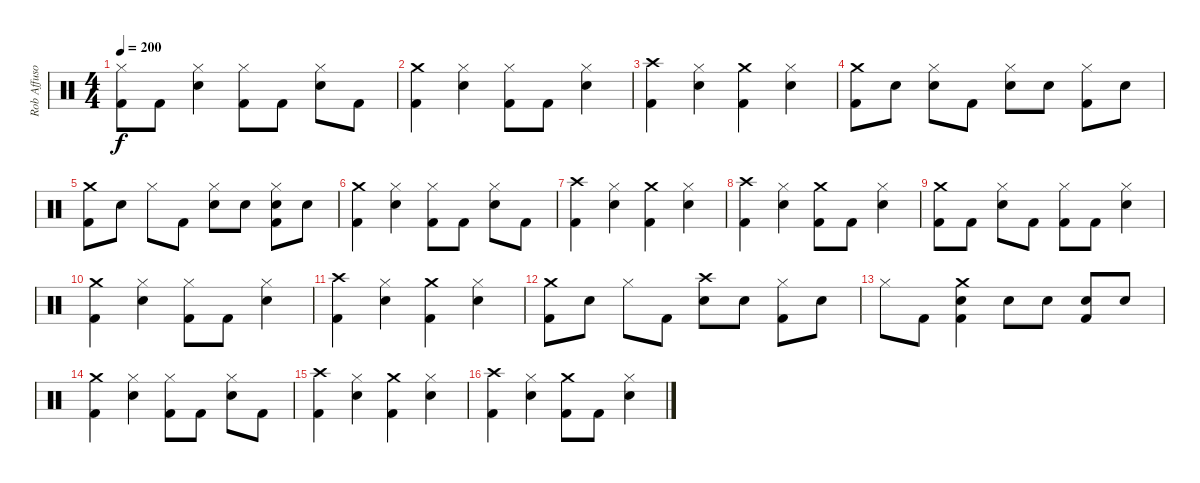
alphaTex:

\track ("Rob Affuso - Drums" "Rob Affuso") {instrument percussion}
\staff {score}
\articulation defaults
\ts (4 4)
\tempo 200
\clef neutral
\ks c
("Hi-Hat (closed)" "Kick (hit) 2").8{dy f} "Kick (hit) 2".8 ("Hi-Hat (closed)" "Snare (hit) 2").4 ("Hi-Hat (closed)" "Kick (hit) 2").8 "Kick (hit) 2".8 ("Hi-Hat (closed)" "Snare (hit) 2").8 "Kick (hit) 2".8 |
("Crash medium (hit)" "Kick (hit) 2").4 ("Hi-Hat (closed)" "Snare (hit) 2").4 ("Hi-Hat (closed)" "Kick (hit) 2").8 "Kick (hit) 2".8 ("Hi-Hat (closed)" "Snare (hit) 2").4 |
("Crash high (hit)" "Kick (hit) 2").4 ("Hi-Hat (closed)" "Snare (hit) 2").4 ("Crash medium (hit)" "Kick (hit) 2").4 ("Hi-Hat (closed)" "Snare (hit) 2").4 |
("Crash medium (hit)" "Kick (hit) 2").8 "Snare (hit) 2".8 ("Hi-Hat (closed)" "Snare (hit) 2").8 "Kick (hit) 2".8 ("Hi-Hat (closed)" "Snare (hit) 2").8 "Snare (hit) 2".8 ("Hi-Hat (closed)" "Kick (hit) 2").8 "Snare (hit) 2".8 |
("Crash medium (hit)" "Kick (hit) 2").8 "Snare (hit) 2".8 "Hi-Hat (closed)".8 "Kick (hit) 2".8 ("Hi-Hat (closed)" "Snare (hit) 2").8 "Snare (hit) 2".8 ("Hi-Hat (closed)" "Snare (hit) 2" "Kick (hit) 2").8 "Snare (hit) 2".8 |
("Crash medium (hit)" "Kick (hit) 2").4 ("Hi-Hat (closed)" "Snare (hit) 2").4 ("Hi-Hat (closed)" "Kick (hit) 2").8 "Kick (hit) 2".8 ("Hi-Hat (closed)" "Snare (hit) 2").8 "Kick (hit) 2".8 |
("Crash high (hit)" "Kick (hit) 2").4 ("Hi-Hat (closed)" "Snare (hit) 2").4 ("Crash medium (hit)" "Kick (hit) 2").4 ("Hi-Hat (closed)" "Snare (hit) 2").4 |
("Crash high (hit)" "Kick (hit) 2").4 ("Hi-Hat (closed)" "Snare (hit) 2").4 ("Crash medium (hit)" "Kick (hit) 2").8 "Kick (hit) 2".8 ("Hi-Hat (closed)" "Snare (hit) 2").4 |
("Crash medium (hit)" "Kick (hit) 2").8 "Kick (hit) 2".8 ("Hi-Hat (closed)" "Snare (hit) 2").8 "Kick (hit) 2".8 ("Hi-Hat (closed)" "Kick (hit) 2").8 "Kick (hit) 2".8 ("Hi-Hat (closed)" "Snare (hit) 2").4 |
("Crash medium (hit)" "Kick (hit) 2").4 ("Hi-Hat (closed)" "Snare (hit) 2").4 ("Hi-Hat (closed)" "Kick (hit) 2").8 "Kick (hit) 2".8 ("Hi-Hat (closed)" "Snare (hit) 2").4 |
("Crash high (hit)" "Kick (hit) 2").4 ("Hi-Hat (closed)" "Snare (hit) 2").4 ("Crash medium (hit)" "Kick (hit) 2").4 ("Hi-Hat (closed)" "Snare (hit) 2").4 |
("Crash medium (hit)" "Kick (hit) 2").8 "Snare (hit) 2".8 "Hi-Hat (closed)".8 "Kick (hit) 2".8 ("Crash high (hit)" "Snare (hit) 2").8 "Snare (hit) 2".8 ("Hi-Hat (closed)" "Kick (hit) 2").8 "Snare (hit) 2".8 |
"Hi-Hat (closed)".8 "Kick (hit) 2".8 ("Crash medium (hit)" "Snare (hit) 2" "Kick (hit) 2").4 "Snare (hit) 2".8 "Snare (hit) 2".8 ("Snare (hit) 2" "Kick (hit) 2").8 "Snare (hit) 2".8 |
("Crash medium (hit)" "Kick (hit) 2").4 ("Hi-Hat (closed)" "Snare (hit) 2").4 ("Hi-Hat (closed)" "Kick (hit) 2").8 "Kick (hit) 2".8 ("Hi-Hat (closed)" "Snare (hit) 2").8 "Kick (hit) 2".8 |
("Crash high (hit)" "Kick (hit) 2").4 ("Hi-Hat (closed)" "Snare (hit) 2").4 ("Crash medium (hit)" "Kick (hit) 2").4 ("Hi-Hat (closed)" "Snare (hit) 2").4 |
("Crash high (hit)" "Kick (hit) 2").4 ("Hi-Hat (closed)" "Snare (hit) 2").4 ("Crash medium (hit)" "Kick (hit) 2").8 "Kick (hit) 2".8 ("Hi-Hat (closed)" "Snare (hit) 2").4
